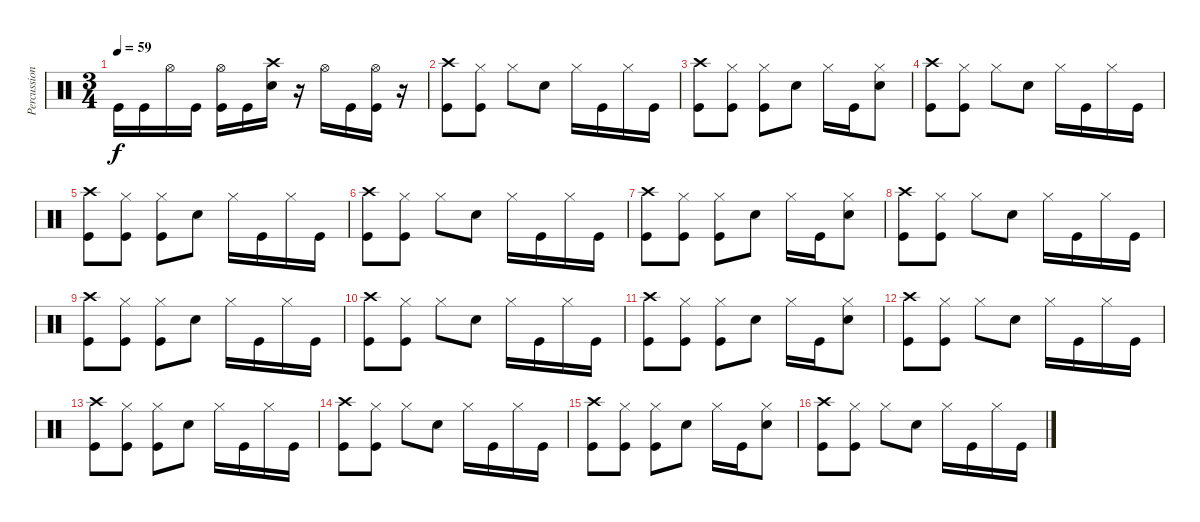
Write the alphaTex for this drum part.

\track ("Percussion" "Percussion") {instrument percussion}
\staff {score}
\articulation defaults
\ts (3 4)
\tempo 59
\clef neutral
\ks c "Kick (hit)".16{dy f} "Kick (hit)".16 "Hi-Hat (open)".16 "Kick (hit)".16
("Hi-Hat (open)" "Kick (hit)").16 "Kick (hit)".16 ("Crash high (hit)" "Electric Snare (hit)").16 r.16 "Hi-Hat (open)".16 "Kick (hit)".16 ("Hi-Hat (open)" "Kick (hit)").16 r.16 |
("Crash high (hit)" "Kick (hit)").8 ("Hi-Hat (closed)" "Kick (hit)").8 "Hi-Hat (closed)".8 "Electric Snare (hit)".8 "Hi-Hat (closed)".16 "Kick (hit)".16 "Hi-Hat (closed)".16 "Kick (hit)".16 |
("Crash high (hit)" "Kick (hit)").8 ("Hi-Hat (closed)" "Kick (hit)").8 ("Hi-Hat (closed)" "Kick (hit)").8 "Electric Snare (hit)".8 "Hi-Hat (closed)".16 "Kick (hit)".16 ("Hi-Hat (closed)" "Electric Snare (hit)").8 |
("Crash high (hit)" "Kick (hit)").8 ("Hi-Hat (closed)" "Kick (hit)").8 "Hi-Hat (closed)".8 "Electric Snare (hit)".8 "Hi-Hat (closed)".16 "Kick (hit)".16 "Hi-Hat (closed)".16 "Kick (hit)".16 |
("Crash high (hit)" "Kick (hit)").8 ("Hi-Hat (closed)" "Kick (hit)").8 ("Hi-Hat (closed)" "Kick (hit)").8 "Electric Snare (hit)".8 "Hi-Hat (closed)".16 "Kick (hit)".16 "Hi-Hat (closed)".16 "Kick (hit)".16 |
("Crash high (hit)" "Kick (hit)").8 ("Hi-Hat (closed)" "Kick (hit)").8 "Hi-Hat (closed)".8 "Electric Snare (hit)".8 "Hi-Hat (closed)".16 "Kick (hit)".16 "Hi-Hat (closed)".16 "Kick (hit)".16 |
("Crash high (hit)" "Kick (hit)").8 ("Hi-Hat (closed)" "Kick (hit)").8 ("Hi-Hat (closed)" "Kick (hit)").8 "Electric Snare (hit)".8 "Hi-Hat (closed)".16 "Kick (hit)".16 ("Hi-Hat (closed)" "Electric Snare (hit)").8 |
("Crash high (hit)" "Kick (hit)").8 ("Hi-Hat (closed)" "Kick (hit)").8 "Hi-Hat (closed)".8 "Electric Snare (hit)".8 "Hi-Hat (closed)".16 "Kick (hit)".16 "Hi-Hat (closed)".16 "Kick (hit)".16 |
("Crash high (hit)" "Kick (hit)").8 ("Hi-Hat (closed)" "Kick (hit)").8 ("Hi-Hat (closed)" "Kick (hit)").8 "Electric Snare (hit)".8 "Hi-Hat (closed)".16 "Kick (hit)".16 "Hi-Hat (closed)".16 "Kick (hit)".16 |
("Crash high (hit)" "Kick (hit)").8 ("Hi-Hat (closed)" "Kick (hit)").8 "Hi-Hat (closed)".8 "Electric Snare (hit)".8 "Hi-Hat (closed)".16 "Kick (hit)".16 "Hi-Hat (closed)".16 "Kick (hit)".16 |
("Crash high (hit)" "Kick (hit)").8 ("Hi-Hat (closed)" "Kick (hit)").8 ("Hi-Hat (closed)" "Kick (hit)").8 "Electric Snare (hit)".8 "Hi-Hat (closed)".16 "Kick (hit)".16 ("Hi-Hat (closed)" "Electric Snare (hit)").8 |
("Crash high (hit)" "Kick (hit)").8 ("Hi-Hat (closed)" "Kick (hit)").8 "Hi-Hat (closed)".8 "Electric Snare (hit)".8 "Hi-Hat (closed)".16 "Kick (hit)".16 "Hi-Hat (closed)".16 "Kick (hit)".16 |
("Crash high (hit)" "Kick (hit)").8 ("Hi-Hat (closed)" "Kick (hit)").8 ("Hi-Hat (closed)" "Kick (hit)").8 "Electric Snare (hit)".8 "Hi-Hat (closed)".16 "Kick (hit)".16 "Hi-Hat (closed)".16 "Kick (hit)".16 |
("Crash high (hit)" "Kick (hit)").8 ("Hi-Hat (closed)" "Kick (hit)").8 "Hi-Hat (closed)".8 "Electric Snare (hit)".8 "Hi-Hat (closed)".16 "Kick (hit)".16 "Hi-Hat (closed)".16 "Kick (hit)".16 |
("Crash high (hit)" "Kick (hit)").8 ("Hi-Hat (closed)" "Kick (hit)").8 ("Hi-Hat (closed)" "Kick (hit)").8 "Electric Snare (hit)".8 "Hi-Hat (closed)".16 "Kick (hit)".16 ("Hi-Hat (closed)" "Electric Snare (hit)").8 |
("Crash high (hit)" "Kick (hit)").8 ("Hi-Hat (closed)" "Kick (hit)").8 "Hi-Hat (closed)".8 "Electric Snare (hit)".8 "Hi-Hat (closed)".16 "Kick (hit)".16 "Hi-Hat (closed)".16 "Kick (hit)".16
